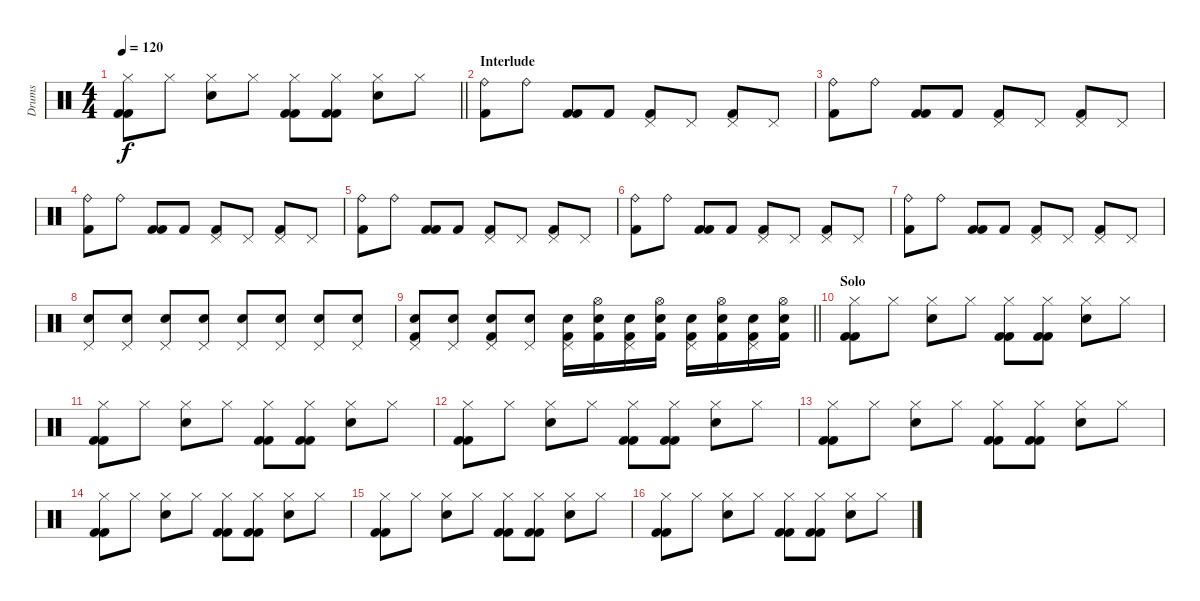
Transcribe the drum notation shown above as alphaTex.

\track ("Drums" "Drums") {instrument percussion}
\staff {score}
\articulation defaults
\ts (4 4)
\tempo 120
\clef neutral
\barLineRight lightlight
\ks c
("Kick (hit) 2" "Hi-Hat (closed)" "Kick (hit) 2").8{dy f} "Hi-Hat (closed)".8 ("Snare (hit) 2" "Hi-Hat (closed)").8 "Hi-Hat (closed)".8 ("Kick (hit) 2" "Hi-Hat (closed)" "Kick (hit) 2").8 ("Kick (hit) 2" "Hi-Hat (closed)" "Kick (hit) 2").8 ("Snare (hit) 2" "Hi-Hat (closed)").8 "Hi-Hat (closed)".8 |
\section ("" "Interlude")
("Ride (bell)" "Kick (hit) 2").8 "Ride (bell)".8 ("Kick (hit) 2" "Kick (hit) 2").8 "Kick (hit) 2".8 ("Pedal Hi-Hat (hit)" "Kick (hit) 2").8 "Pedal Hi-Hat (hit)".8 ("Pedal Hi-Hat (hit)" "Kick (hit) 2").8 "Pedal Hi-Hat (hit)".8 |
("Ride (bell)" "Kick (hit) 2").8 "Ride (bell)".8 ("Kick (hit) 2" "Kick (hit) 2").8 "Kick (hit) 2".8 ("Pedal Hi-Hat (hit)" "Kick (hit) 2").8 "Pedal Hi-Hat (hit)".8 ("Pedal Hi-Hat (hit)" "Kick (hit) 2").8 "Pedal Hi-Hat (hit)".8 |
("Ride (bell)" "Kick (hit) 2").8 "Ride (bell)".8 ("Kick (hit) 2" "Kick (hit) 2").8 "Kick (hit) 2".8 ("Pedal Hi-Hat (hit)" "Kick (hit) 2").8 "Pedal Hi-Hat (hit)".8 ("Pedal Hi-Hat (hit)" "Kick (hit) 2").8 "Pedal Hi-Hat (hit)".8 |
("Ride (bell)" "Kick (hit) 2").8 "Ride (bell)".8 ("Kick (hit) 2" "Kick (hit) 2").8 "Kick (hit) 2".8 ("Pedal Hi-Hat (hit)" "Kick (hit) 2").8 "Pedal Hi-Hat (hit)".8 ("Pedal Hi-Hat (hit)" "Kick (hit) 2").8 "Pedal Hi-Hat (hit)".8 |
("Ride (bell)" "Kick (hit) 2").8 "Ride (bell)".8 ("Kick (hit) 2" "Kick (hit) 2").8 "Kick (hit) 2".8 ("Pedal Hi-Hat (hit)" "Kick (hit) 2").8 "Pedal Hi-Hat (hit)".8 ("Pedal Hi-Hat (hit)" "Kick (hit) 2").8 "Pedal Hi-Hat (hit)".8 |
("Ride (bell)" "Kick (hit) 2").8 "Ride (bell)".8 ("Kick (hit) 2" "Kick (hit) 2").8 "Kick (hit) 2".8 ("Pedal Hi-Hat (hit)" "Kick (hit) 2").8 "Pedal Hi-Hat (hit)".8 ("Pedal Hi-Hat (hit)" "Kick (hit) 2").8 "Pedal Hi-Hat (hit)".8 |
("Pedal Hi-Hat (hit)" "Snare (hit) 2").8 ("Pedal Hi-Hat (hit)" "Snare (hit) 2").8 ("Pedal Hi-Hat (hit)" "Snare (hit) 2").8 ("Pedal Hi-Hat (hit)" "Snare (hit) 2").8 ("Pedal Hi-Hat (hit)" "Snare (hit) 2").8 ("Pedal Hi-Hat (hit)" "Snare (hit) 2").8 ("Pedal Hi-Hat (hit)" "Snare (hit) 2").8 ("Pedal Hi-Hat (hit)" "Snare (hit) 2").8 |
\barLineRight lightlight
("Pedal Hi-Hat (hit)" "Snare (hit) 2" "Kick (hit) 2").8 ("Pedal Hi-Hat (hit)" "Snare (hit) 2").8 ("Pedal Hi-Hat (hit)" "Snare (hit) 2" "Kick (hit) 2").8 ("Pedal Hi-Hat (hit)" "Snare (hit) 2").8 ("Pedal Hi-Hat (hit)" "Snare (hit) 2" "Kick (hit) 2").16 ("Hi-Hat (open)" "Snare (hit) 2" "Kick (hit) 2").16 ("Pedal Hi-Hat (hit)" "Snare (hit) 2" "Kick (hit) 2").16 ("Hi-Hat (open)" "Snare (hit) 2" "Kick (hit) 2").16 ("Pedal Hi-Hat (hit)" "Snare (hit) 2" "Kick (hit) 2").16 ("Hi-Hat (open)" "Snare (hit) 2" "Kick (hit) 2").16 ("Pedal Hi-Hat (hit)" "Snare (hit) 2" "Kick (hit) 2").16 ("Hi-Hat (open)" "Snare (hit) 2" "Kick (hit) 2").16 |
\section ("" "Solo")
("Kick (hit) 2" "Hi-Hat (closed)" "Kick (hit) 2").8 "Hi-Hat (closed)".8 ("Snare (hit) 2" "Hi-Hat (closed)").8 "Hi-Hat (closed)".8 ("Kick (hit) 2" "Hi-Hat (closed)" "Kick (hit) 2").8 ("Kick (hit) 2" "Hi-Hat (closed)" "Kick (hit) 2").8 ("Snare (hit) 2" "Hi-Hat (closed)").8 "Hi-Hat (closed)".8 |
("Kick (hit) 2" "Hi-Hat (closed)" "Kick (hit) 2").8 "Hi-Hat (closed)".8 ("Snare (hit) 2" "Hi-Hat (closed)").8 "Hi-Hat (closed)".8 ("Kick (hit) 2" "Hi-Hat (closed)" "Kick (hit) 2").8 ("Kick (hit) 2" "Hi-Hat (closed)" "Kick (hit) 2").8 ("Snare (hit) 2" "Hi-Hat (closed)").8 "Hi-Hat (closed)".8 |
("Kick (hit) 2" "Hi-Hat (closed)" "Kick (hit) 2").8 "Hi-Hat (closed)".8 ("Snare (hit) 2" "Hi-Hat (closed)").8 "Hi-Hat (closed)".8 ("Kick (hit) 2" "Hi-Hat (closed)" "Kick (hit) 2").8 ("Kick (hit) 2" "Hi-Hat (closed)" "Kick (hit) 2").8 ("Snare (hit) 2" "Hi-Hat (closed)").8 "Hi-Hat (closed)".8 |
("Kick (hit) 2" "Hi-Hat (closed)" "Kick (hit) 2").8 "Hi-Hat (closed)".8 ("Snare (hit) 2" "Hi-Hat (closed)").8 "Hi-Hat (closed)".8 ("Kick (hit) 2" "Hi-Hat (closed)" "Kick (hit) 2").8 ("Kick (hit) 2" "Hi-Hat (closed)" "Kick (hit) 2").8 ("Snare (hit) 2" "Hi-Hat (closed)").8 "Hi-Hat (closed)".8 |
("Kick (hit) 2" "Hi-Hat (closed)" "Kick (hit) 2").8 "Hi-Hat (closed)".8 ("Snare (hit) 2" "Hi-Hat (closed)").8 "Hi-Hat (closed)".8 ("Kick (hit) 2" "Hi-Hat (closed)" "Kick (hit) 2").8 ("Kick (hit) 2" "Hi-Hat (closed)" "Kick (hit) 2").8 ("Snare (hit) 2" "Hi-Hat (closed)").8 "Hi-Hat (closed)".8 |
("Kick (hit) 2" "Hi-Hat (closed)" "Kick (hit) 2").8 "Hi-Hat (closed)".8 ("Snare (hit) 2" "Hi-Hat (closed)").8 "Hi-Hat (closed)".8 ("Kick (hit) 2" "Hi-Hat (closed)" "Kick (hit) 2").8 ("Kick (hit) 2" "Hi-Hat (closed)" "Kick (hit) 2").8 ("Snare (hit) 2" "Hi-Hat (closed)").8 "Hi-Hat (closed)".8 |
("Kick (hit) 2" "Hi-Hat (closed)" "Kick (hit) 2").8 "Hi-Hat (closed)".8 ("Snare (hit) 2" "Hi-Hat (closed)").8 "Hi-Hat (closed)".8 ("Kick (hit) 2" "Hi-Hat (closed)" "Kick (hit) 2").8 ("Kick (hit) 2" "Hi-Hat (closed)" "Kick (hit) 2").8 ("Snare (hit) 2" "Hi-Hat (closed)").8 "Hi-Hat (closed)".8
